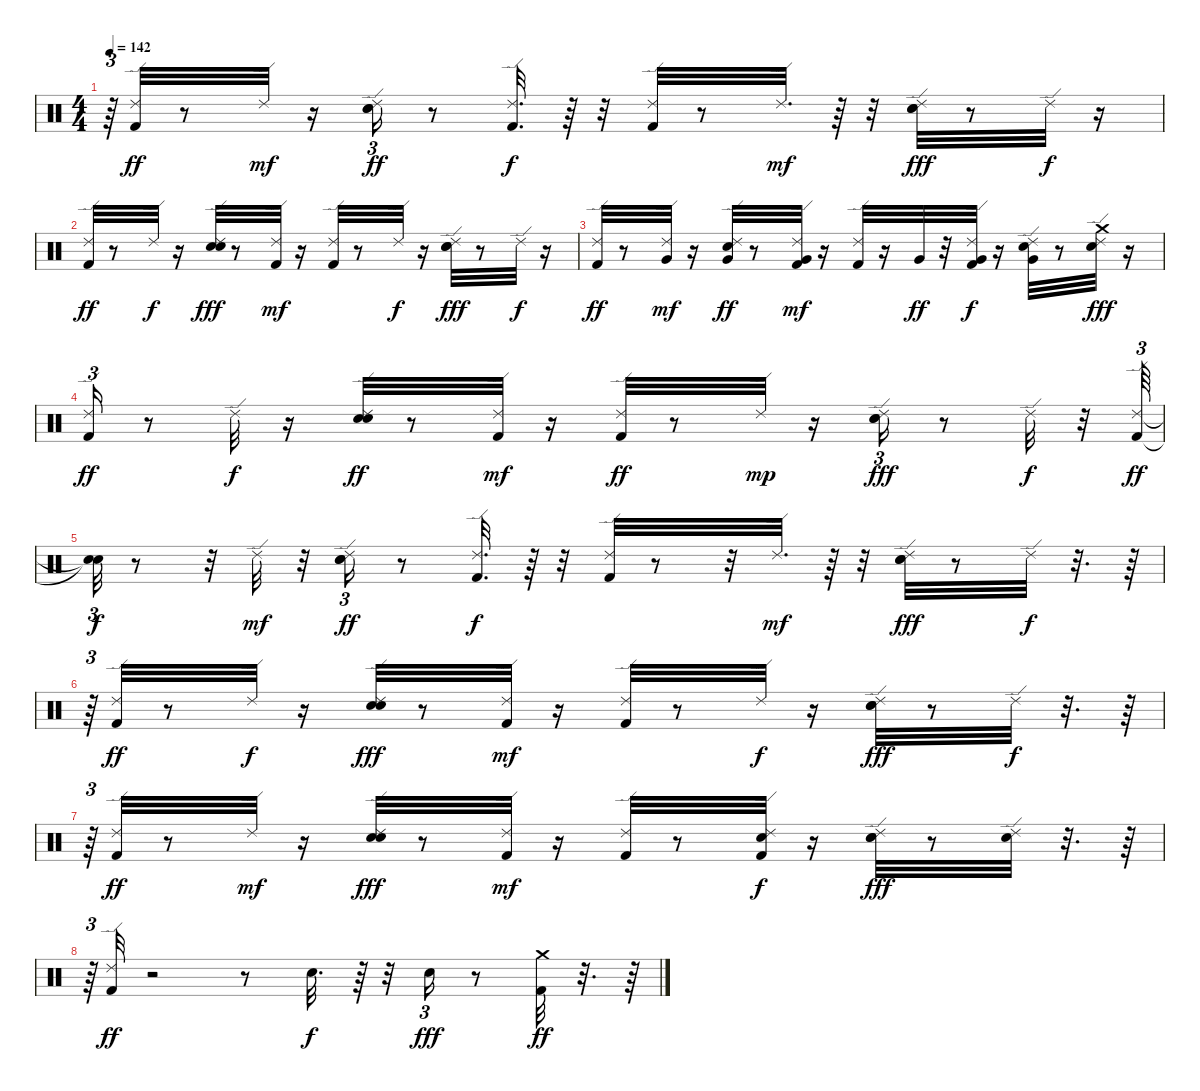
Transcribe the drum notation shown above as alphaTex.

\track "" {instrument percussion}
\staff {score}
\articulation defaults
\ts (4 4)
\tempo 142
\clef neutral
\ks c
r.64{tu (3 2) dy f} ("Kick (hit) 2" "Ride (edge) 2").32{dy ff} r.8 "Ride (edge) 2".32{dy mf} r.16 ("Hand Clap (hit)" "Electric Snare (hit)" "Ride (edge) 2").16{tu (3 2) dy ff} r.8 ("Kick (hit) 2" "Ride (edge) 2").32{d dy f} r.64 r.32 ("Kick (hit) 2" "Ride (edge) 2").32 r.8 "Ride (edge) 2".32{d dy mf} r.64 r.32 ("Hand Clap (hit)" "Electric Snare (hit)" "Ride (edge) 2").32{dy fff} r.8 "Ride (edge) 2".32{dy f} r.16 |
("Ride (edge) 2" "Kick (hit) 2").32{dy ff} r.8 "Ride (edge) 2".32{dy f} r.16 ("Electric Snare (hit)" "Hand Clap (hit)" "Ride (edge) 2").32{dy fff} r.8 ("Kick (hit) 2" "Ride (edge) 2").32{dy mf} r.16 ("Kick (hit) 2" "Ride (edge) 2").32 r.8 "Ride (edge) 2".32{dy f} r.16 ("Electric Snare (hit)" "Hand Clap (hit)" "Ride (edge) 2").32{dy fff} r.8 "Ride (edge) 2".32{dy f} r.16 |
("Kick (hit) 2" "Ride (edge) 2").32{dy ff} r.8 ("Ride (edge) 2" "Very Low Tom (hit)").32{dy mf} r.16 ("Hand Clap (hit)" "Ride (edge) 2" "Very Low Tom (hit)").32{dy ff} r.8 ("Very Low Tom (hit)" "Kick (hit) 2" "Ride (edge) 2").32{dy mf} r.16 ("Kick (hit) 2" "Ride (edge) 2").32 r.16 "Very Low Tom (hit)".32{dy ff} r.32 ("Ride (edge) 2" "Very Low Tom (hit)" "Kick (hit) 2").32{dy f} r.16 ("Very Low Tom (hit)" "Hand Clap (hit)" "Ride (edge) 2").32 r.8 ("Crash medium (hit)" "Electric Snare (hit)" "Ride (edge) 2").32{dy fff} r.16 |
("Ride (edge) 2" "Kick (hit) 2").16{tu (3 2) dy ff} r.8 "Ride (edge) 2".32{dy f} r.16 ("Hand Clap (hit)" "Electric Snare (hit)" "Ride (edge) 2").32{dy ff} r.8 ("Kick (hit) 2" "Ride (edge) 2").32{dy mf} r.16 ("Kick (hit) 2" "Ride (edge) 2").32{dy ff} r.8 "Ride (edge) 2".32{dy mp} r.16 ("Hand Clap (hit)" "Electric Snare (hit)" "Ride (edge) 2").16{tu (3 2) dy fff} r.8 "Ride (edge) 2".32{dy f} r.32 ("Kick (hit) 2" "Ride (edge) 2").64{tu (3 2) dy ff} |
("Snare (hit)"{t} "Snare (hit)"{t}).32{tu (3 2) dy f} r.8 r.32 "Ride (edge) 2".32{dy mf} r.32 ("Hand Clap (hit)" "Electric Snare (hit)" "Ride (edge) 2").16{tu (3 2) dy ff} r.8 ("Kick (hit) 2" "Ride (edge) 2").32{d dy f} r.64 r.32 ("Kick (hit) 2" "Ride (edge) 2").32 r.8 r.32 "Ride (edge) 2".32{d dy mf} r.64 r.32 ("Hand Clap (hit)" "Electric Snare (hit)" "Ride (edge) 2").32{dy fff} r.8 "Ride (edge) 2".32{dy f} r.32{d} r.64 |
r.64{tu (3 2)} ("Ride (edge) 2" "Kick (hit) 2").32{dy ff} r.8 "Ride (edge) 2".32{dy f} r.16 ("Electric Snare (hit)" "Hand Clap (hit)" "Ride (edge) 2").32{dy fff} r.8 ("Kick (hit) 2" "Ride (edge) 2").32{dy mf} r.16 ("Kick (hit) 2" "Ride (edge) 2").32 r.8 "Ride (edge) 2".32{dy f} r.16 ("Electric Snare (hit)" "Hand Clap (hit)" "Ride (edge) 2").32{dy fff} r.8 "Ride (edge) 2".32{dy f} r.32{d} r.64 |
r.64{tu (3 2)} ("Kick (hit) 2" "Ride (edge) 2").32{dy ff} r.8 "Ride (edge) 2".32{dy mf} r.16 ("Hand Clap (hit)" "Electric Snare (hit)" "Ride (edge) 2").32{dy fff} r.8 ("Kick (hit) 2" "Ride (edge) 2").32{dy mf} r.16 ("Kick (hit) 2" "Ride (edge) 2").32 r.8 ("Electric Snare (hit)" "Ride (edge) 2" "Kick (hit) 2").32{dy f} r.16 ("Electric Snare (hit)" "Hand Clap (hit)" "Ride (edge) 2").32{dy fff} r.8 ("Electric Snare (hit)" "Ride (edge) 2").32 r.32{d} r.64 |
r.64{tu (3 2)} ("Ride (edge) 2" "Kick (hit) 2").32{dy ff} r.2 r.8 "Electric Snare (hit)".32{d dy f} r.64 r.32 "Electric Snare (hit)".16{tu (3 2) dy fff} r.8 ("Kick (hit) 2" "Crash medium (hit)").32{dy ff} r.32{d} r.64
